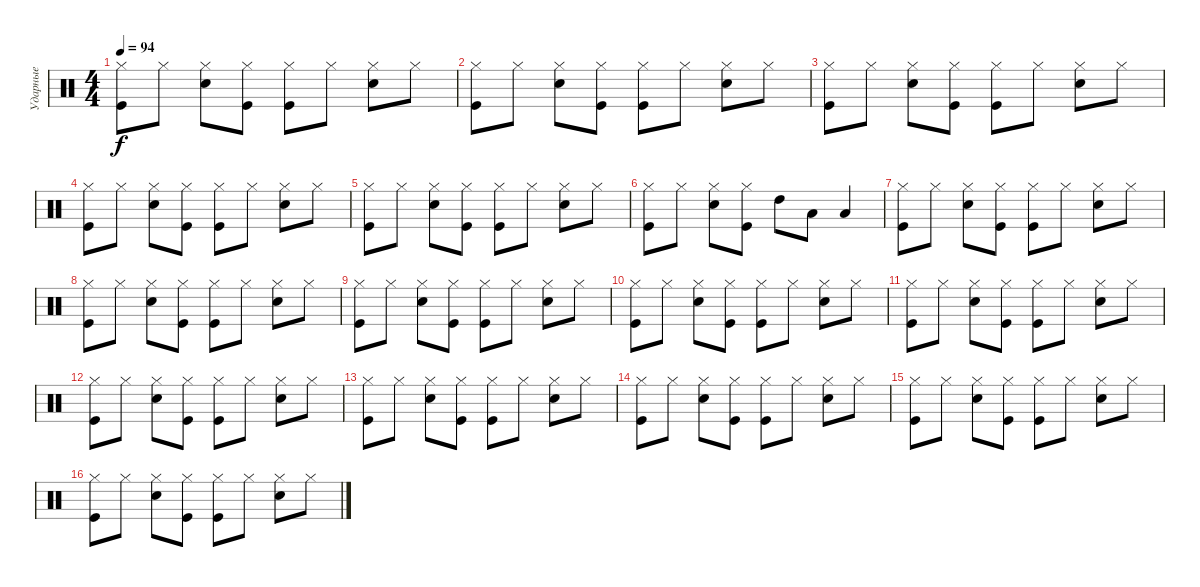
\track ("Ударные" "Ударные") {instrument percussion}
\staff {score}
\articulation defaults
\ts (4 4)
\tempo 94
\clef neutral
\ks c
("Hi-Hat (closed)" "Kick (hit)").8{dy f} "Hi-Hat (closed)".8 ("Hi-Hat (closed)" "Snare (hit) 2").8 ("Kick (hit)" "Hi-Hat (closed)").8 ("Hi-Hat (closed)" "Kick (hit)").8 "Hi-Hat (closed)".8 ("Hi-Hat (closed)" "Snare (hit) 2").8 "Hi-Hat (closed)".8 |
("Hi-Hat (closed)" "Kick (hit)").8 "Hi-Hat (closed)".8 ("Hi-Hat (closed)" "Snare (hit) 2").8 ("Kick (hit)" "Hi-Hat (closed)").8 ("Hi-Hat (closed)" "Kick (hit)").8 "Hi-Hat (closed)".8 ("Hi-Hat (closed)" "Snare (hit) 2").8 "Hi-Hat (closed)".8 |
("Hi-Hat (closed)" "Kick (hit)").8 "Hi-Hat (closed)".8 ("Hi-Hat (closed)" "Snare (hit) 2").8 ("Kick (hit)" "Hi-Hat (closed)").8 ("Hi-Hat (closed)" "Kick (hit)").8 "Hi-Hat (closed)".8 ("Hi-Hat (closed)" "Snare (hit) 2").8 "Hi-Hat (closed)".8 |
("Hi-Hat (closed)" "Kick (hit)").8 "Hi-Hat (closed)".8 ("Hi-Hat (closed)" "Snare (hit) 2").8 ("Kick (hit)" "Hi-Hat (closed)").8 ("Hi-Hat (closed)" "Kick (hit)").8 "Hi-Hat (closed)".8 ("Hi-Hat (closed)" "Snare (hit) 2").8 "Hi-Hat (closed)".8 |
("Hi-Hat (closed)" "Kick (hit)").8 "Hi-Hat (closed)".8 ("Hi-Hat (closed)" "Snare (hit) 2").8 ("Kick (hit)" "Hi-Hat (closed)").8 ("Hi-Hat (closed)" "Kick (hit)").8 "Hi-Hat (closed)".8 ("Hi-Hat (closed)" "Snare (hit) 2").8 "Hi-Hat (closed)".8 |
("Hi-Hat (closed)" "Kick (hit)").8 "Hi-Hat (closed)".8 ("Hi-Hat (closed)" "Snare (hit) 2").8 ("Kick (hit)" "Hi-Hat (closed)").8 "High Tom (hit)".8 "Low Tom (hit)".8 "Low Floor Tom (hit)".4 |
("Hi-Hat (closed)" "Kick (hit)").8 "Hi-Hat (closed)".8 ("Hi-Hat (closed)" "Snare (hit) 2").8 ("Kick (hit)" "Hi-Hat (closed)").8 ("Hi-Hat (closed)" "Kick (hit)").8 "Hi-Hat (closed)".8 ("Hi-Hat (closed)" "Snare (hit) 2").8 "Hi-Hat (closed)".8 |
("Hi-Hat (closed)" "Kick (hit)").8 "Hi-Hat (closed)".8 ("Hi-Hat (closed)" "Snare (hit) 2").8 ("Kick (hit)" "Hi-Hat (closed)").8 ("Hi-Hat (closed)" "Kick (hit)").8 "Hi-Hat (closed)".8 ("Hi-Hat (closed)" "Snare (hit) 2").8 "Hi-Hat (closed)".8 |
("Hi-Hat (closed)" "Kick (hit)").8 "Hi-Hat (closed)".8 ("Hi-Hat (closed)" "Snare (hit) 2").8 ("Kick (hit)" "Hi-Hat (closed)").8 ("Hi-Hat (closed)" "Kick (hit)").8 "Hi-Hat (closed)".8 ("Hi-Hat (closed)" "Snare (hit) 2").8 "Hi-Hat (closed)".8 |
("Hi-Hat (closed)" "Kick (hit)").8 "Hi-Hat (closed)".8 ("Hi-Hat (closed)" "Snare (hit) 2").8 ("Kick (hit)" "Hi-Hat (closed)").8 ("Hi-Hat (closed)" "Kick (hit)").8 "Hi-Hat (closed)".8 ("Hi-Hat (closed)" "Snare (hit) 2").8 "Hi-Hat (closed)".8 |
("Hi-Hat (closed)" "Kick (hit)").8 "Hi-Hat (closed)".8 ("Hi-Hat (closed)" "Snare (hit) 2").8 ("Kick (hit)" "Hi-Hat (closed)").8 ("Hi-Hat (closed)" "Kick (hit)").8 "Hi-Hat (closed)".8 ("Hi-Hat (closed)" "Snare (hit) 2").8 "Hi-Hat (closed)".8 |
("Hi-Hat (closed)" "Kick (hit)").8 "Hi-Hat (closed)".8 ("Hi-Hat (closed)" "Snare (hit) 2").8 ("Kick (hit)" "Hi-Hat (closed)").8 ("Hi-Hat (closed)" "Kick (hit)").8 "Hi-Hat (closed)".8 ("Hi-Hat (closed)" "Snare (hit) 2").8 "Hi-Hat (closed)".8 |
("Hi-Hat (closed)" "Kick (hit)").8 "Hi-Hat (closed)".8 ("Hi-Hat (closed)" "Snare (hit) 2").8 ("Kick (hit)" "Hi-Hat (closed)").8 ("Hi-Hat (closed)" "Kick (hit)").8 "Hi-Hat (closed)".8 ("Hi-Hat (closed)" "Snare (hit) 2").8 "Hi-Hat (closed)".8 |
("Hi-Hat (closed)" "Kick (hit)").8 "Hi-Hat (closed)".8 ("Hi-Hat (closed)" "Snare (hit) 2").8 ("Kick (hit)" "Hi-Hat (closed)").8 ("Hi-Hat (closed)" "Kick (hit)").8 "Hi-Hat (closed)".8 ("Hi-Hat (closed)" "Snare (hit) 2").8 "Hi-Hat (closed)".8 |
("Hi-Hat (closed)" "Kick (hit)").8 "Hi-Hat (closed)".8 ("Hi-Hat (closed)" "Snare (hit) 2").8 ("Kick (hit)" "Hi-Hat (closed)").8 ("Hi-Hat (closed)" "Kick (hit)").8 "Hi-Hat (closed)".8 ("Hi-Hat (closed)" "Snare (hit) 2").8 "Hi-Hat (closed)".8 |
("Hi-Hat (closed)" "Kick (hit)").8 "Hi-Hat (closed)".8 ("Hi-Hat (closed)" "Snare (hit) 2").8 ("Kick (hit)" "Hi-Hat (closed)").8 ("Hi-Hat (closed)" "Kick (hit)").8 "Hi-Hat (closed)".8 ("Hi-Hat (closed)" "Snare (hit) 2").8 "Hi-Hat (closed)".8
